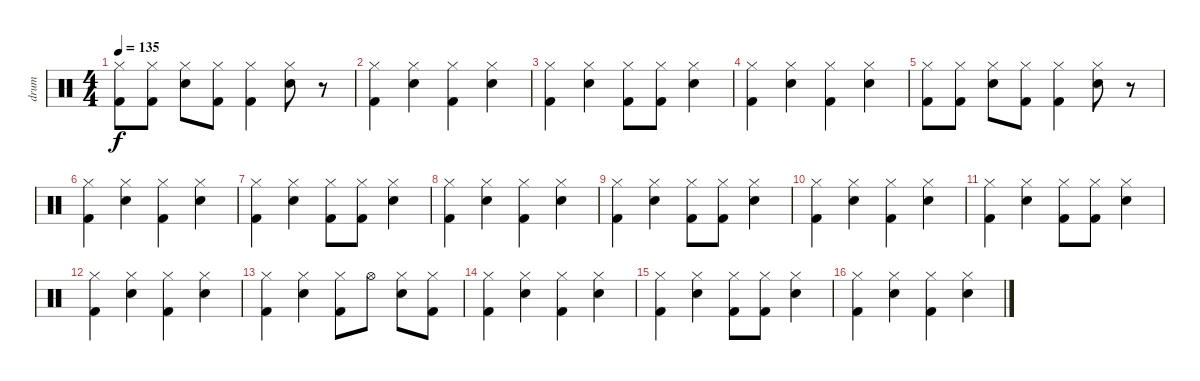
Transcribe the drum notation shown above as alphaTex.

\track ("drum" "drum") {instrument percussion}
\staff {score}
\articulation defaults
\ts (4 4)
\tempo 135
\clef neutral
\ks c
("Hi-Hat (closed)" "Kick (hit) 2").8{dy f} ("Hi-Hat (closed)" "Kick (hit) 2").8 ("Hi-Hat (closed)" "Snare (hit) 2").8 ("Hi-Hat (closed)" "Kick (hit) 2").8 ("Hi-Hat (closed)" "Kick (hit) 2").4 ("Hi-Hat (closed)" "Snare (hit) 2").8 r.8 |
("Hi-Hat (closed)" "Kick (hit) 2").4 ("Hi-Hat (closed)" "Snare (hit) 2").4 ("Hi-Hat (closed)" "Kick (hit) 2").4 ("Hi-Hat (closed)" "Snare (hit) 2").4 |
("Hi-Hat (closed)" "Kick (hit) 2").4 ("Hi-Hat (closed)" "Snare (hit) 2").4 ("Hi-Hat (closed)" "Kick (hit) 2").8 ("Hi-Hat (closed)" "Kick (hit) 2").8 ("Hi-Hat (closed)" "Snare (hit) 2").4 |
("Hi-Hat (closed)" "Kick (hit) 2").4 ("Hi-Hat (closed)" "Snare (hit) 2").4 ("Hi-Hat (closed)" "Kick (hit) 2").4 ("Hi-Hat (closed)" "Snare (hit) 2").4 |
("Hi-Hat (closed)" "Kick (hit) 2").8 ("Hi-Hat (closed)" "Kick (hit) 2").8 ("Hi-Hat (closed)" "Snare (hit) 2").8 ("Hi-Hat (closed)" "Kick (hit) 2").8 ("Hi-Hat (closed)" "Kick (hit) 2").4 ("Hi-Hat (closed)" "Snare (hit) 2").8 r.8 |
("Hi-Hat (closed)" "Kick (hit) 2").4 ("Hi-Hat (closed)" "Snare (hit) 2").4 ("Hi-Hat (closed)" "Kick (hit) 2").4 ("Hi-Hat (closed)" "Snare (hit) 2").4 |
("Hi-Hat (closed)" "Kick (hit) 2").4 ("Hi-Hat (closed)" "Snare (hit) 2").4 ("Hi-Hat (closed)" "Kick (hit) 2").8 ("Hi-Hat (closed)" "Kick (hit) 2").8 ("Hi-Hat (closed)" "Snare (hit) 2").4 |
("Hi-Hat (closed)" "Kick (hit) 2").4 ("Hi-Hat (closed)" "Snare (hit) 2").4 ("Hi-Hat (closed)" "Kick (hit) 2").4 ("Hi-Hat (closed)" "Snare (hit) 2").4 |
("Hi-Hat (closed)" "Kick (hit) 2").4 ("Hi-Hat (closed)" "Snare (hit) 2").4 ("Hi-Hat (closed)" "Kick (hit) 2").8 ("Hi-Hat (closed)" "Kick (hit) 2").8 ("Hi-Hat (closed)" "Snare (hit) 2").4 |
("Hi-Hat (closed)" "Kick (hit) 2").4 ("Hi-Hat (closed)" "Snare (hit) 2").4 ("Hi-Hat (closed)" "Kick (hit) 2").4 ("Hi-Hat (closed)" "Snare (hit) 2").4 |
("Hi-Hat (closed)" "Kick (hit) 2").4 ("Hi-Hat (closed)" "Snare (hit) 2").4 ("Hi-Hat (closed)" "Kick (hit) 2").8 ("Hi-Hat (closed)" "Kick (hit) 2").8 ("Hi-Hat (closed)" "Snare (hit) 2").4 |
("Hi-Hat (closed)" "Kick (hit) 2").4 ("Hi-Hat (closed)" "Snare (hit) 2").4 ("Hi-Hat (closed)" "Kick (hit) 2").4 ("Hi-Hat (closed)" "Snare (hit) 2").4 |
("Hi-Hat (closed)" "Kick (hit) 2").4 ("Hi-Hat (closed)" "Snare (hit) 2").4 ("Hi-Hat (closed)" "Kick (hit) 2").8 "Hi-Hat (open)".8 ("Hi-Hat (closed)" "Snare (hit) 2").8 ("Hi-Hat (closed)" "Kick (hit) 2").8 |
("Hi-Hat (closed)" "Kick (hit) 2").4 ("Hi-Hat (closed)" "Snare (hit) 2").4 ("Hi-Hat (closed)" "Kick (hit) 2").4 ("Hi-Hat (closed)" "Snare (hit) 2").4 |
("Hi-Hat (closed)" "Kick (hit) 2").4 ("Hi-Hat (closed)" "Snare (hit) 2").4 ("Hi-Hat (closed)" "Kick (hit) 2").8 ("Hi-Hat (closed)" "Kick (hit) 2").8 ("Hi-Hat (closed)" "Snare (hit) 2").4 |
("Hi-Hat (closed)" "Kick (hit) 2").4 ("Hi-Hat (closed)" "Snare (hit) 2").4 ("Hi-Hat (closed)" "Kick (hit) 2").4 ("Hi-Hat (closed)" "Snare (hit) 2").4
